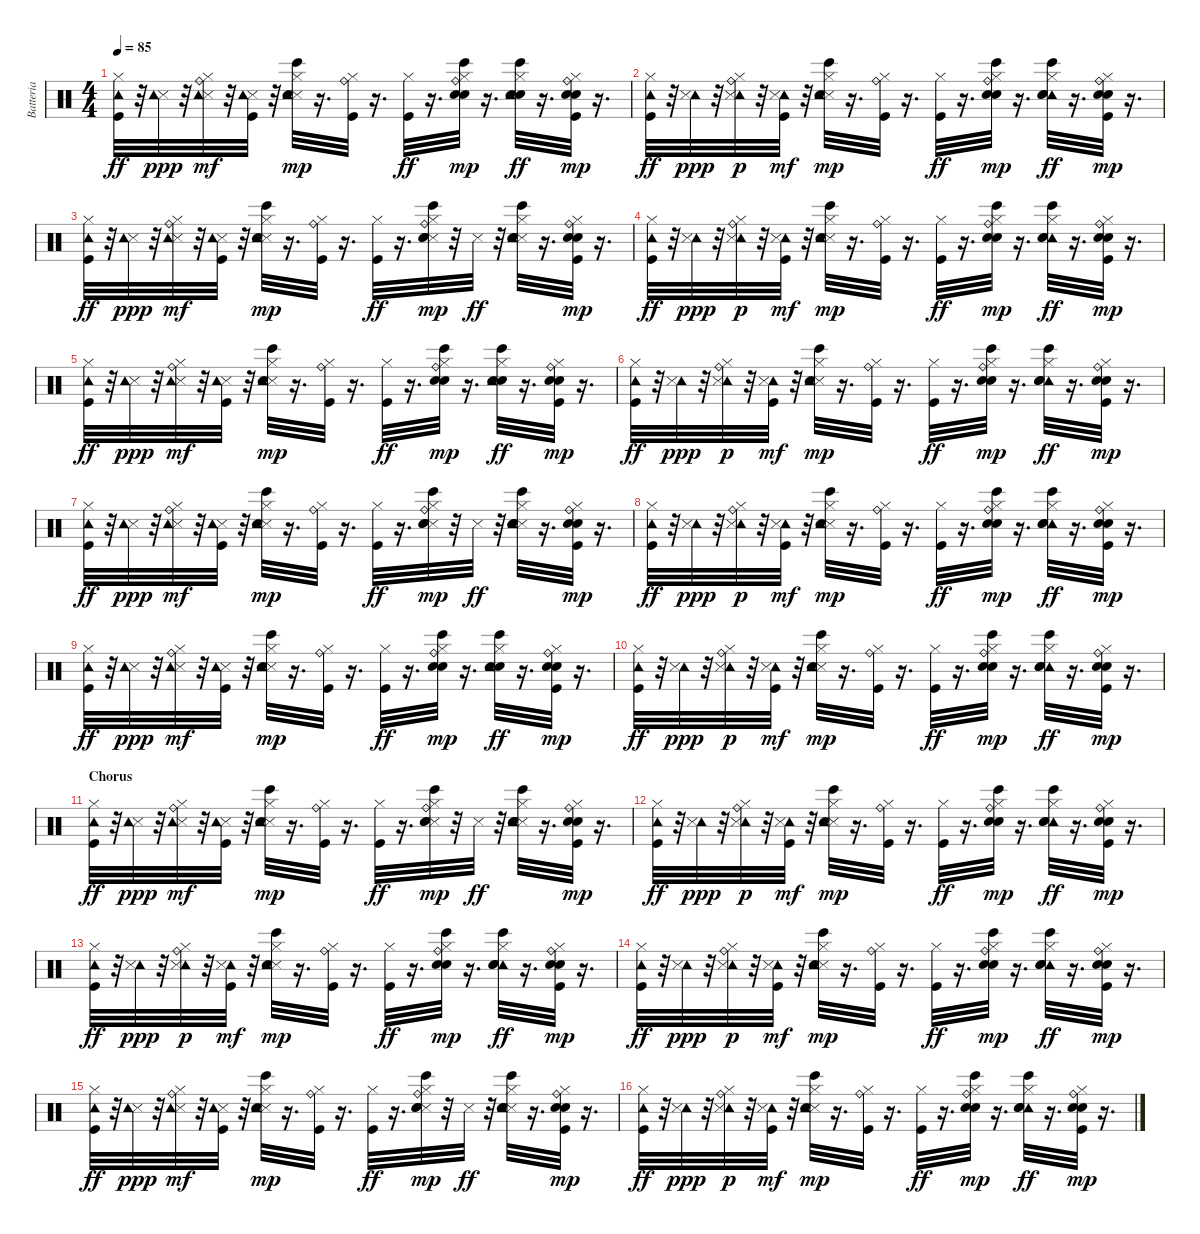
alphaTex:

\track ("Batteria" "Batteria") {instrument percussion}
\staff {score}
\articulation defaults
\ts (4 4)
\tempo 85
\clef neutral
\ks c
("Kick (hit)" "Hi-Hat (closed)" "Tambourine (hit)").32{dy ff} r.32 ("Metronome (hit)" "Tambourine (hit)").32{dy ppp} r.32 ("Metronome (hit)" "Hi-Hat (closed)" "Ride (bell)" "Tambourine (hit)").32{dy mf} r.32 ("Metronome (hit)" "Kick (hit)" "Tambourine (hit)").32 r.32 ("Bongo High (hit)" "Metronome (hit)" "Snare (hit) 2" "Hi-Hat (closed)" "Tambourine (hit)").32{dy mp} r.16{d} ("Kick (hit)" "Hi-Hat (closed)" "Ride (bell)").32 r.16{d} ("Kick (hit)" "Hi-Hat (closed)").32{dy ff} r.16{d} ("Bongo High (hit)" "Snare (hit) 2" "Hand Clap (hit)" "Hi-Hat (closed)" "Ride (bell)").32{dy mp} r.16{d} ("Bongo High (hit)" "Snare (hit) 2" "Hand Clap (hit)" "Hi-Hat (closed)" "Tambourine (hit)").32{dy ff} r.16{d} ("Kick (hit)" "Snare (hit) 2" "Hand Clap (hit)" "Hi-Hat (closed)" "Ride (bell)").32{dy mp} r.16{d} |
("Kick (hit)" "Hi-Hat (closed)" "Tambourine (hit)").32{dy ff} r.32 ("Tambourine (hit)" "Metronome (hit)").32{dy ppp} r.32 ("Tambourine (hit)" "Metronome (hit)" "Hi-Hat (closed)" "Ride (bell)").32{dy p} r.32 ("Tambourine (hit)" "Metronome (hit)" "Kick (hit)").32{dy mf} r.32 ("Bongo High (hit)" "Metronome (hit)" "Snare (hit) 2" "Hi-Hat (closed)" "Tambourine (hit)").32{dy mp} r.16{d} ("Kick (hit)" "Hi-Hat (closed)" "Ride (bell)").32 r.16{d} ("Kick (hit)" "Hi-Hat (closed)").32{dy ff} r.16{d} ("Bongo High (hit)" "Snare (hit) 2" "Hand Clap (hit)" "Hi-Hat (closed)" "Ride (bell)").32{dy mp} r.16{d} ("Tambourine (hit)" "Bongo High (hit)" "Snare (hit) 2" "Hand Clap (hit)" "Hi-Hat (closed)").32{dy ff} r.16{d} ("Kick (hit)" "Snare (hit) 2" "Hand Clap (hit)" "Hi-Hat (closed)" "Ride (bell)").32{dy mp} r.16{d} |
("Kick (hit)" "Hi-Hat (closed)" "Tambourine (hit)").32{dy ff} r.32 ("Metronome (hit)" "Tambourine (hit)").32{dy ppp} r.32 ("Metronome (hit)" "Hi-Hat (closed)" "Ride (bell)" "Tambourine (hit)").32{dy mf} r.32 ("Metronome (hit)" "Kick (hit)" "Tambourine (hit)").32 r.32 ("Bongo High (hit)" "Metronome (hit)" "Snare (hit) 2" "Hi-Hat (closed)" "Tambourine (hit)").32{dy mp} r.16{d} ("Kick (hit)" "Hi-Hat (closed)" "Ride (bell)").32 r.16{d} ("Kick (hit)" "Hi-Hat (closed)").32{dy ff} r.16{d} ("Bongo High (hit)" "Metronome (hit)" "Snare (hit) 2" "Hand Clap (hit)" "Hi-Hat (closed)" "Ride (bell)").32{dy mp} r.32 "Metronome (hit)".32{dy ff} r.32 ("Bongo High (hit)" "Metronome (hit)" "Snare (hit) 2" "Hand Clap (hit)" "Hi-Hat (closed)" "Tambourine (hit)").32 r.16{d} ("Kick (hit)" "Snare (hit) 2" "Hand Clap (hit)" "Hi-Hat (closed)" "Ride (bell)").32{dy mp} r.16{d} |
("Kick (hit)" "Hi-Hat (closed)" "Tambourine (hit)").32{dy ff} r.32 ("Tambourine (hit)" "Metronome (hit)").32{dy ppp} r.32 ("Tambourine (hit)" "Metronome (hit)" "Hi-Hat (closed)" "Ride (bell)").32{dy p} r.32 ("Tambourine (hit)" "Metronome (hit)" "Kick (hit)").32{dy mf} r.32 ("Bongo High (hit)" "Metronome (hit)" "Snare (hit) 2" "Hi-Hat (closed)" "Tambourine (hit)").32{dy mp} r.16{d} ("Kick (hit)" "Hi-Hat (closed)" "Ride (bell)").32 r.16{d} ("Kick (hit)" "Hi-Hat (closed)").32{dy ff} r.16{d} ("Bongo High (hit)" "Snare (hit) 2" "Hand Clap (hit)" "Hi-Hat (closed)" "Ride (bell)").32{dy mp} r.16{d} ("Tambourine (hit)" "Bongo High (hit)" "Snare (hit) 2" "Hand Clap (hit)" "Hi-Hat (closed)").32{dy ff} r.16{d} ("Kick (hit)" "Snare (hit) 2" "Hand Clap (hit)" "Hi-Hat (closed)" "Ride (bell)").32{dy mp} r.16{d} |
("Kick (hit)" "Hi-Hat (closed)" "Tambourine (hit)").32{dy ff} r.32 ("Metronome (hit)" "Tambourine (hit)").32{dy ppp} r.32 ("Metronome (hit)" "Hi-Hat (closed)" "Ride (bell)" "Tambourine (hit)").32{dy mf} r.32 ("Metronome (hit)" "Kick (hit)" "Tambourine (hit)").32 r.32 ("Bongo High (hit)" "Metronome (hit)" "Snare (hit) 2" "Hi-Hat (closed)" "Tambourine (hit)").32{dy mp} r.16{d} ("Kick (hit)" "Hi-Hat (closed)" "Ride (bell)").32 r.16{d} ("Kick (hit)" "Hi-Hat (closed)").32{dy ff} r.16{d} ("Bongo High (hit)" "Snare (hit) 2" "Hand Clap (hit)" "Hi-Hat (closed)" "Ride (bell)").32{dy mp} r.16{d} ("Bongo High (hit)" "Snare (hit) 2" "Hand Clap (hit)" "Hi-Hat (closed)" "Tambourine (hit)").32{dy ff} r.16{d} ("Kick (hit)" "Snare (hit) 2" "Hand Clap (hit)" "Hi-Hat (closed)" "Ride (bell)").32{dy mp} r.16{d} |
("Kick (hit)" "Hi-Hat (closed)" "Tambourine (hit)").32{dy ff} r.32 ("Tambourine (hit)" "Metronome (hit)").32{dy ppp} r.32 ("Tambourine (hit)" "Metronome (hit)" "Hi-Hat (closed)" "Ride (bell)").32{dy p} r.32 ("Tambourine (hit)" "Metronome (hit)" "Kick (hit)").32{dy mf} r.32 ("Bongo High (hit)" "Metronome (hit)" "Snare (hit) 2" "Hi-Hat (closed)" "Tambourine (hit)").32{dy mp} r.16{d} ("Kick (hit)" "Hi-Hat (closed)" "Ride (bell)").32 r.16{d} ("Kick (hit)" "Hi-Hat (closed)").32{dy ff} r.16{d} ("Bongo High (hit)" "Snare (hit) 2" "Hand Clap (hit)" "Hi-Hat (closed)" "Ride (bell)").32{dy mp} r.16{d} ("Tambourine (hit)" "Bongo High (hit)" "Snare (hit) 2" "Hand Clap (hit)" "Hi-Hat (closed)").32{dy ff} r.16{d} ("Kick (hit)" "Snare (hit) 2" "Hand Clap (hit)" "Hi-Hat (closed)" "Ride (bell)").32{dy mp} r.16{d} |
("Kick (hit)" "Hi-Hat (closed)" "Tambourine (hit)").32{dy ff} r.32 ("Metronome (hit)" "Tambourine (hit)").32{dy ppp} r.32 ("Metronome (hit)" "Hi-Hat (closed)" "Ride (bell)" "Tambourine (hit)").32{dy mf} r.32 ("Metronome (hit)" "Kick (hit)" "Tambourine (hit)").32 r.32 ("Bongo High (hit)" "Metronome (hit)" "Snare (hit) 2" "Hi-Hat (closed)" "Tambourine (hit)").32{dy mp} r.16{d} ("Kick (hit)" "Hi-Hat (closed)" "Ride (bell)").32 r.16{d} ("Kick (hit)" "Hi-Hat (closed)").32{dy ff} r.16{d} ("Bongo High (hit)" "Metronome (hit)" "Snare (hit) 2" "Hand Clap (hit)" "Hi-Hat (closed)" "Ride (bell)").32{dy mp} r.32 "Metronome (hit)".32{dy ff} r.32 ("Bongo High (hit)" "Metronome (hit)" "Snare (hit) 2" "Hand Clap (hit)" "Hi-Hat (closed)" "Tambourine (hit)").32 r.16{d} ("Kick (hit)" "Snare (hit) 2" "Hand Clap (hit)" "Hi-Hat (closed)" "Ride (bell)").32{dy mp} r.16{d} |
("Kick (hit)" "Hi-Hat (closed)" "Tambourine (hit)").32{dy ff} r.32 ("Tambourine (hit)" "Metronome (hit)").32{dy ppp} r.32 ("Tambourine (hit)" "Metronome (hit)" "Hi-Hat (closed)" "Ride (bell)").32{dy p} r.32 ("Tambourine (hit)" "Metronome (hit)" "Kick (hit)").32{dy mf} r.32 ("Bongo High (hit)" "Metronome (hit)" "Snare (hit) 2" "Hi-Hat (closed)" "Tambourine (hit)").32{dy mp} r.16{d} ("Kick (hit)" "Hi-Hat (closed)" "Ride (bell)").32 r.16{d} ("Kick (hit)" "Hi-Hat (closed)").32{dy ff} r.16{d} ("Bongo High (hit)" "Snare (hit) 2" "Hand Clap (hit)" "Hi-Hat (closed)" "Ride (bell)").32{dy mp} r.16{d} ("Tambourine (hit)" "Bongo High (hit)" "Snare (hit) 2" "Hand Clap (hit)" "Hi-Hat (closed)").32{dy ff} r.16{d} ("Kick (hit)" "Snare (hit) 2" "Hand Clap (hit)" "Hi-Hat (closed)" "Ride (bell)").32{dy mp} r.16{d} |
("Kick (hit)" "Hi-Hat (closed)" "Tambourine (hit)").32{dy ff} r.32 ("Metronome (hit)" "Tambourine (hit)").32{dy ppp} r.32 ("Metronome (hit)" "Hi-Hat (closed)" "Ride (bell)" "Tambourine (hit)").32{dy mf} r.32 ("Metronome (hit)" "Kick (hit)" "Tambourine (hit)").32 r.32 ("Bongo High (hit)" "Metronome (hit)" "Snare (hit) 2" "Hi-Hat (closed)" "Tambourine (hit)").32{dy mp} r.16{d} ("Kick (hit)" "Hi-Hat (closed)" "Ride (bell)").32 r.16{d} ("Kick (hit)" "Hi-Hat (closed)").32{dy ff} r.16{d} ("Bongo High (hit)" "Snare (hit) 2" "Hand Clap (hit)" "Hi-Hat (closed)" "Ride (bell)").32{dy mp} r.16{d} ("Bongo High (hit)" "Snare (hit) 2" "Hand Clap (hit)" "Hi-Hat (closed)" "Tambourine (hit)").32{dy ff} r.16{d} ("Kick (hit)" "Snare (hit) 2" "Hand Clap (hit)" "Hi-Hat (closed)" "Ride (bell)").32{dy mp} r.16{d} |
("Kick (hit)" "Hi-Hat (closed)" "Tambourine (hit)").32{dy ff} r.32 ("Tambourine (hit)" "Metronome (hit)").32{dy ppp} r.32 ("Tambourine (hit)" "Metronome (hit)" "Hi-Hat (closed)" "Ride (bell)").32{dy p} r.32 ("Tambourine (hit)" "Metronome (hit)" "Kick (hit)").32{dy mf} r.32 ("Bongo High (hit)" "Metronome (hit)" "Snare (hit) 2" "Hi-Hat (closed)" "Tambourine (hit)").32{dy mp} r.16{d} ("Kick (hit)" "Hi-Hat (closed)" "Ride (bell)").32 r.16{d} ("Kick (hit)" "Hi-Hat (closed)").32{dy ff} r.16{d} ("Bongo High (hit)" "Snare (hit) 2" "Hand Clap (hit)" "Hi-Hat (closed)" "Ride (bell)").32{dy mp} r.16{d} ("Tambourine (hit)" "Bongo High (hit)" "Snare (hit) 2" "Hand Clap (hit)" "Hi-Hat (closed)").32{dy ff} r.16{d} ("Kick (hit)" "Snare (hit) 2" "Hand Clap (hit)" "Hi-Hat (closed)" "Ride (bell)").32{dy mp} r.16{d} |
\section ("" "Chorus")
("Kick (hit)" "Hi-Hat (closed)" "Tambourine (hit)").32{dy ff} r.32 ("Metronome (hit)" "Tambourine (hit)").32{dy ppp} r.32 ("Metronome (hit)" "Hi-Hat (closed)" "Ride (bell)" "Tambourine (hit)").32{dy mf} r.32 ("Metronome (hit)" "Kick (hit)" "Tambourine (hit)").32 r.32 ("Bongo High (hit)" "Metronome (hit)" "Snare (hit) 2" "Hi-Hat (closed)" "Tambourine (hit)").32{dy mp} r.16{d} ("Kick (hit)" "Hi-Hat (closed)" "Ride (bell)").32 r.16{d} ("Kick (hit)" "Hi-Hat (closed)").32{dy ff} r.16{d} ("Bongo High (hit)" "Metronome (hit)" "Snare (hit) 2" "Hand Clap (hit)" "Hi-Hat (closed)" "Ride (bell)").32{dy mp} r.32 "Metronome (hit)".32{dy ff} r.32 ("Bongo High (hit)" "Metronome (hit)" "Snare (hit) 2" "Hand Clap (hit)" "Hi-Hat (closed)" "Tambourine (hit)").32 r.16{d} ("Kick (hit)" "Snare (hit) 2" "Hand Clap (hit)" "Hi-Hat (closed)" "Ride (bell)").32{dy mp} r.16{d} |
("Kick (hit)" "Hi-Hat (closed)" "Tambourine (hit)").32{dy ff} r.32 ("Tambourine (hit)" "Metronome (hit)").32{dy ppp} r.32 ("Tambourine (hit)" "Metronome (hit)" "Hi-Hat (closed)" "Ride (bell)").32{dy p} r.32 ("Tambourine (hit)" "Metronome (hit)" "Kick (hit)").32{dy mf} r.32 ("Bongo High (hit)" "Metronome (hit)" "Snare (hit) 2" "Hi-Hat (closed)" "Tambourine (hit)").32{dy mp} r.16{d} ("Kick (hit)" "Hi-Hat (closed)" "Ride (bell)").32 r.16{d} ("Kick (hit)" "Hi-Hat (closed)").32{dy ff} r.16{d} ("Bongo High (hit)" "Snare (hit) 2" "Hand Clap (hit)" "Hi-Hat (closed)" "Ride (bell)").32{dy mp} r.16{d} ("Tambourine (hit)" "Bongo High (hit)" "Snare (hit) 2" "Hand Clap (hit)" "Hi-Hat (closed)").32{dy ff} r.16{d} ("Kick (hit)" "Snare (hit) 2" "Hand Clap (hit)" "Hi-Hat (closed)" "Ride (bell)").32{dy mp} r.16{d} |
("Kick (hit)" "Hi-Hat (closed)" "Tambourine (hit)").32{dy ff} r.32 ("Tambourine (hit)" "Metronome (hit)").32{dy ppp} r.32 ("Tambourine (hit)" "Metronome (hit)" "Hi-Hat (closed)" "Ride (bell)").32{dy p} r.32 ("Tambourine (hit)" "Metronome (hit)" "Kick (hit)").32{dy mf} r.32 ("Bongo High (hit)" "Metronome (hit)" "Snare (hit) 2" "Hi-Hat (closed)" "Tambourine (hit)").32{dy mp} r.16{d} ("Kick (hit)" "Hi-Hat (closed)" "Ride (bell)").32 r.16{d} ("Kick (hit)" "Hi-Hat (closed)").32{dy ff} r.16{d} ("Bongo High (hit)" "Snare (hit) 2" "Hand Clap (hit)" "Hi-Hat (closed)" "Ride (bell)").32{dy mp} r.16{d} ("Tambourine (hit)" "Bongo High (hit)" "Snare (hit) 2" "Hand Clap (hit)" "Hi-Hat (closed)").32{dy ff} r.16{d} ("Kick (hit)" "Snare (hit) 2" "Hand Clap (hit)" "Hi-Hat (closed)" "Ride (bell)").32{dy mp} r.16{d} |
("Kick (hit)" "Hi-Hat (closed)" "Tambourine (hit)").32{dy ff} r.32 ("Tambourine (hit)" "Metronome (hit)").32{dy ppp} r.32 ("Tambourine (hit)" "Metronome (hit)" "Hi-Hat (closed)" "Ride (bell)").32{dy p} r.32 ("Tambourine (hit)" "Metronome (hit)" "Kick (hit)").32{dy mf} r.32 ("Bongo High (hit)" "Metronome (hit)" "Snare (hit) 2" "Hi-Hat (closed)" "Tambourine (hit)").32{dy mp} r.16{d} ("Kick (hit)" "Hi-Hat (closed)" "Ride (bell)").32 r.16{d} ("Kick (hit)" "Hi-Hat (closed)").32{dy ff} r.16{d} ("Bongo High (hit)" "Snare (hit) 2" "Hand Clap (hit)" "Hi-Hat (closed)" "Ride (bell)").32{dy mp} r.16{d} ("Tambourine (hit)" "Bongo High (hit)" "Snare (hit) 2" "Hand Clap (hit)" "Hi-Hat (closed)").32{dy ff} r.16{d} ("Kick (hit)" "Snare (hit) 2" "Hand Clap (hit)" "Hi-Hat (closed)" "Ride (bell)").32{dy mp} r.16{d} |
("Kick (hit)" "Hi-Hat (closed)" "Tambourine (hit)").32{dy ff} r.32 ("Metronome (hit)" "Tambourine (hit)").32{dy ppp} r.32 ("Metronome (hit)" "Hi-Hat (closed)" "Ride (bell)" "Tambourine (hit)").32{dy mf} r.32 ("Metronome (hit)" "Kick (hit)" "Tambourine (hit)").32 r.32 ("Bongo High (hit)" "Metronome (hit)" "Snare (hit) 2" "Hi-Hat (closed)" "Tambourine (hit)").32{dy mp} r.16{d} ("Kick (hit)" "Hi-Hat (closed)" "Ride (bell)").32 r.16{d} ("Kick (hit)" "Hi-Hat (closed)").32{dy ff} r.16{d} ("Bongo High (hit)" "Metronome (hit)" "Snare (hit) 2" "Hand Clap (hit)" "Hi-Hat (closed)" "Ride (bell)").32{dy mp} r.32 "Metronome (hit)".32{dy ff} r.32 ("Bongo High (hit)" "Metronome (hit)" "Snare (hit) 2" "Hand Clap (hit)" "Hi-Hat (closed)" "Tambourine (hit)").32 r.16{d} ("Kick (hit)" "Snare (hit) 2" "Hand Clap (hit)" "Hi-Hat (closed)" "Ride (bell)").32{dy mp} r.16{d} |
("Kick (hit)" "Hi-Hat (closed)" "Tambourine (hit)").32{dy ff} r.32 ("Tambourine (hit)" "Metronome (hit)").32{dy ppp} r.32 ("Tambourine (hit)" "Metronome (hit)" "Hi-Hat (closed)" "Ride (bell)").32{dy p} r.32 ("Tambourine (hit)" "Metronome (hit)" "Kick (hit)").32{dy mf} r.32 ("Bongo High (hit)" "Metronome (hit)" "Snare (hit) 2" "Hi-Hat (closed)" "Tambourine (hit)").32{dy mp} r.16{d} ("Kick (hit)" "Hi-Hat (closed)" "Ride (bell)").32 r.16{d} ("Kick (hit)" "Hi-Hat (closed)").32{dy ff} r.16{d} ("Bongo High (hit)" "Snare (hit) 2" "Hand Clap (hit)" "Hi-Hat (closed)" "Ride (bell)").32{dy mp} r.16{d} ("Tambourine (hit)" "Bongo High (hit)" "Snare (hit) 2" "Hand Clap (hit)" "Hi-Hat (closed)").32{dy ff} r.16{d} ("Kick (hit)" "Snare (hit) 2" "Hand Clap (hit)" "Hi-Hat (closed)" "Ride (bell)").32{dy mp} r.16{d}
